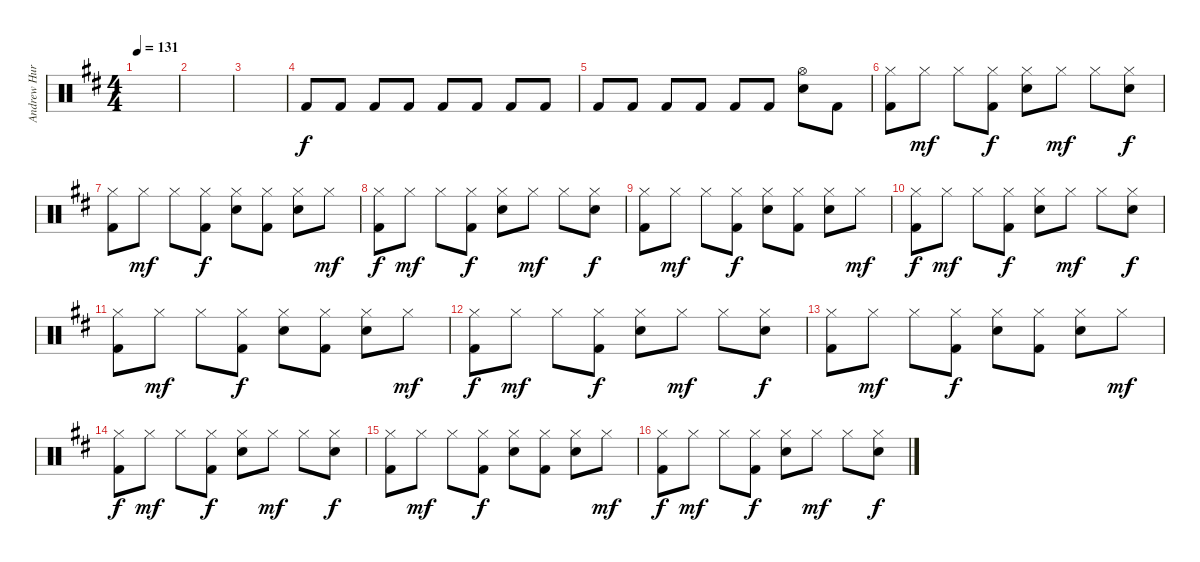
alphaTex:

\track ("Andrew Hurley" "Andrew Hur") {instrument percussion}
\staff {score}
\articulation defaults
\ts (4 4)
\tempo 131
\clef neutral
\ks d
|
|
|
"Kick (hit) 2".8 "Kick (hit) 2".8 "Kick (hit) 2".8 "Kick (hit) 2".8 "Kick (hit) 2".8 "Kick (hit) 2".8 "Kick (hit) 2".8 "Kick (hit) 2".8 |
"Kick (hit) 2".8 "Kick (hit) 2".8 "Kick (hit) 2".8 "Kick (hit) 2".8 "Kick (hit) 2".8 "Kick (hit) 2".8 ("Hi-Hat (open)" "Electric Snare (hit)").8 "Kick (hit) 2".8 |
("Hi-Hat (closed)" "Kick (hit) 2").8 "Hi-Hat (closed)".8{dy mf} "Hi-Hat (closed)".8 ("Hi-Hat (closed)" "Kick (hit) 2").8{dy f} ("Hi-Hat (closed)" "Electric Snare (hit)").8 "Hi-Hat (closed)".8{dy mf} "Hi-Hat (closed)".8 ("Hi-Hat (closed)" "Electric Snare (hit)").8{dy f} |
("Hi-Hat (closed)" "Kick (hit) 2").8 "Hi-Hat (closed)".8{dy mf} "Hi-Hat (closed)".8 ("Hi-Hat (closed)" "Kick (hit) 2").8{dy f} ("Hi-Hat (closed)" "Electric Snare (hit)").8 ("Hi-Hat (closed)" "Kick (hit) 2").8 ("Hi-Hat (closed)" "Electric Snare (hit)").8 "Hi-Hat (closed)".8{dy mf} |
("Hi-Hat (closed)" "Kick (hit) 2").8{dy f} "Hi-Hat (closed)".8{dy mf} "Hi-Hat (closed)".8 ("Hi-Hat (closed)" "Kick (hit) 2").8{dy f} ("Hi-Hat (closed)" "Electric Snare (hit)").8 "Hi-Hat (closed)".8{dy mf} "Hi-Hat (closed)".8 ("Hi-Hat (closed)" "Electric Snare (hit)").8{dy f} |
("Hi-Hat (closed)" "Kick (hit) 2").8 "Hi-Hat (closed)".8{dy mf} "Hi-Hat (closed)".8 ("Hi-Hat (closed)" "Kick (hit) 2").8{dy f} ("Hi-Hat (closed)" "Electric Snare (hit)").8 ("Hi-Hat (closed)" "Kick (hit) 2").8 ("Hi-Hat (closed)" "Electric Snare (hit)").8 "Hi-Hat (closed)".8{dy mf} |
("Hi-Hat (closed)" "Kick (hit) 2").8{dy f} "Hi-Hat (closed)".8{dy mf} "Hi-Hat (closed)".8 ("Hi-Hat (closed)" "Kick (hit) 2").8{dy f} ("Hi-Hat (closed)" "Electric Snare (hit)").8 "Hi-Hat (closed)".8{dy mf} "Hi-Hat (closed)".8 ("Hi-Hat (closed)" "Electric Snare (hit)").8{dy f} |
("Hi-Hat (closed)" "Kick (hit) 2").8 "Hi-Hat (closed)".8{dy mf} "Hi-Hat (closed)".8 ("Hi-Hat (closed)" "Kick (hit) 2").8{dy f} ("Hi-Hat (closed)" "Electric Snare (hit)").8 ("Hi-Hat (closed)" "Kick (hit) 2").8 ("Hi-Hat (closed)" "Electric Snare (hit)").8 "Hi-Hat (closed)".8{dy mf} |
("Hi-Hat (closed)" "Kick (hit) 2").8{dy f} "Hi-Hat (closed)".8{dy mf} "Hi-Hat (closed)".8 ("Hi-Hat (closed)" "Kick (hit) 2").8{dy f} ("Hi-Hat (closed)" "Electric Snare (hit)").8 "Hi-Hat (closed)".8{dy mf} "Hi-Hat (closed)".8 ("Hi-Hat (closed)" "Electric Snare (hit)").8{dy f} |
("Hi-Hat (closed)" "Kick (hit) 2").8 "Hi-Hat (closed)".8{dy mf} "Hi-Hat (closed)".8 ("Hi-Hat (closed)" "Kick (hit) 2").8{dy f} ("Hi-Hat (closed)" "Electric Snare (hit)").8 ("Hi-Hat (closed)" "Kick (hit) 2").8 ("Hi-Hat (closed)" "Electric Snare (hit)").8 "Hi-Hat (closed)".8{dy mf} |
("Hi-Hat (closed)" "Kick (hit) 2").8{dy f} "Hi-Hat (closed)".8{dy mf} "Hi-Hat (closed)".8 ("Hi-Hat (closed)" "Kick (hit) 2").8{dy f} ("Hi-Hat (closed)" "Electric Snare (hit)").8 "Hi-Hat (closed)".8{dy mf} "Hi-Hat (closed)".8 ("Hi-Hat (closed)" "Electric Snare (hit)").8{dy f} |
("Hi-Hat (closed)" "Kick (hit) 2").8 "Hi-Hat (closed)".8{dy mf} "Hi-Hat (closed)".8 ("Hi-Hat (closed)" "Kick (hit) 2").8{dy f} ("Hi-Hat (closed)" "Electric Snare (hit)").8 ("Hi-Hat (closed)" "Kick (hit) 2").8 ("Hi-Hat (closed)" "Electric Snare (hit)").8 "Hi-Hat (closed)".8{dy mf} |
("Hi-Hat (closed)" "Kick (hit) 2").8{dy f} "Hi-Hat (closed)".8{dy mf} "Hi-Hat (closed)".8 ("Hi-Hat (closed)" "Kick (hit) 2").8{dy f} ("Hi-Hat (closed)" "Electric Snare (hit)").8 "Hi-Hat (closed)".8{dy mf} "Hi-Hat (closed)".8 ("Hi-Hat (closed)" "Electric Snare (hit)").8{dy f}
